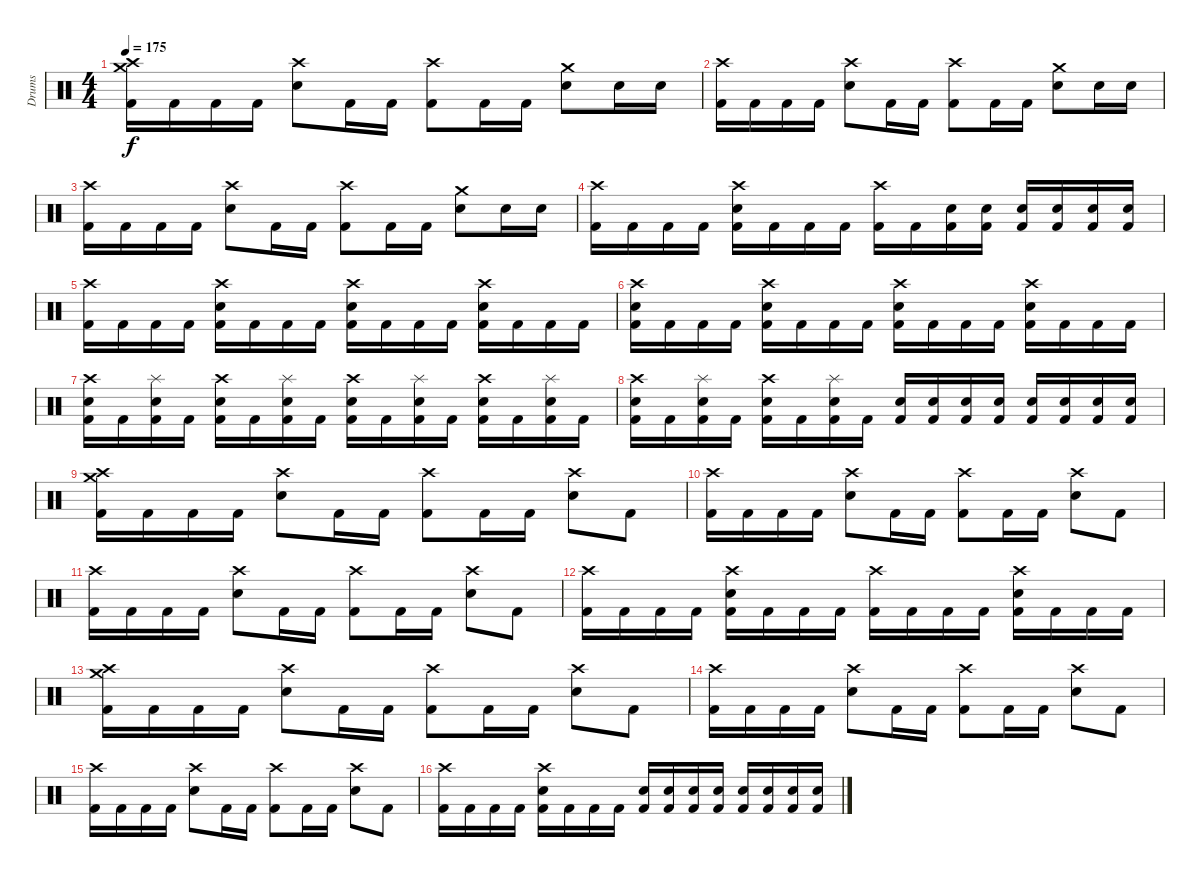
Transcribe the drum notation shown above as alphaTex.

\track ("Drums" "Drums") {instrument percussion}
\staff {score}
\articulation defaults
\ts (4 4)
\tempo 175
\clef neutral
\ks c
("Crash medium (hit)" "Crash high (hit)" "Kick (hit) 2").16{dy f} "Kick (hit) 2".16 "Kick (hit) 2".16 "Kick (hit) 2".16 ("Crash high (hit)" "Snare (hit) 2").8 "Kick (hit) 2".16 "Kick (hit) 2".16 ("Crash high (hit)" "Kick (hit) 2").8 "Kick (hit) 2".16 "Kick (hit) 2".16 ("Crash medium (hit)" "Snare (hit) 2").8 "Snare (hit) 2".16 "Snare (hit) 2".16 |
("Crash high (hit)" "Kick (hit) 2").16 "Kick (hit) 2".16 "Kick (hit) 2".16 "Kick (hit) 2".16 ("Crash high (hit)" "Snare (hit) 2").8 "Kick (hit) 2".16 "Kick (hit) 2".16 ("Crash high (hit)" "Kick (hit) 2").8 "Kick (hit) 2".16 "Kick (hit) 2".16 ("Crash medium (hit)" "Snare (hit) 2").8 "Snare (hit) 2".16 "Snare (hit) 2".16 |
("Crash high (hit)" "Kick (hit) 2").16 "Kick (hit) 2".16 "Kick (hit) 2".16 "Kick (hit) 2".16 ("Crash high (hit)" "Snare (hit) 2").8 "Kick (hit) 2".16 "Kick (hit) 2".16 ("Crash high (hit)" "Kick (hit) 2").8 "Kick (hit) 2".16 "Kick (hit) 2".16 ("Crash medium (hit)" "Snare (hit) 2").8 "Snare (hit) 2".16 "Snare (hit) 2".16 |
("Crash high (hit)" "Kick (hit) 2").16 "Kick (hit) 2".16 "Kick (hit) 2".16 "Kick (hit) 2".16 ("Crash high (hit)" "Snare (hit) 2" "Kick (hit) 2").16 "Kick (hit) 2".16 "Kick (hit) 2".16 "Kick (hit) 2".16 ("Crash high (hit)" "Kick (hit) 2").16 "Kick (hit) 2".16 ("Snare (hit) 2" "Kick (hit) 2").16 ("Snare (hit) 2" "Kick (hit) 2").16 ("Snare (hit) 2" "Kick (hit) 2").16 ("Snare (hit) 2" "Kick (hit) 2").16 ("Snare (hit) 2" "Kick (hit) 2").16 ("Snare (hit) 2" "Kick (hit) 2").16 |
("Crash high (hit)" "Kick (hit) 2").16 "Kick (hit) 2".16 "Kick (hit) 2".16 "Kick (hit) 2".16 ("Crash high (hit)" "Snare (hit) 2" "Kick (hit) 2").16 "Kick (hit) 2".16 "Kick (hit) 2".16 "Kick (hit) 2".16 ("Crash high (hit)" "Snare (hit) 2" "Kick (hit) 2").16 "Kick (hit) 2".16 "Kick (hit) 2".16 "Kick (hit) 2".16 ("Crash high (hit)" "Snare (hit) 2" "Kick (hit) 2").16 "Kick (hit) 2".16 "Kick (hit) 2".16 "Kick (hit) 2".16 |
("Crash high (hit)" "Snare (hit) 2" "Kick (hit) 2").16 "Kick (hit) 2".16 "Kick (hit) 2".16 "Kick (hit) 2".16 ("Crash high (hit)" "Snare (hit) 2" "Kick (hit) 2").16 "Kick (hit) 2".16 "Kick (hit) 2".16 "Kick (hit) 2".16 ("Crash high (hit)" "Snare (hit) 2" "Kick (hit) 2").16 "Kick (hit) 2".16 "Kick (hit) 2".16 "Kick (hit) 2".16 ("Crash high (hit)" "Snare (hit) 2" "Kick (hit) 2").16 "Kick (hit) 2".16 "Kick (hit) 2".16 "Kick (hit) 2".16 |
("Crash high (hit)" "Snare (hit) 2" "Kick (hit) 2").16 "Kick (hit) 2".16 ("Splash (hit)" "Snare (hit) 2" "Kick (hit) 2").16 "Kick (hit) 2".16 ("Crash high (hit)" "Snare (hit) 2" "Kick (hit) 2").16 "Kick (hit) 2".16 ("Splash (hit)" "Snare (hit) 2" "Kick (hit) 2").16 "Kick (hit) 2".16 ("Crash high (hit)" "Snare (hit) 2" "Kick (hit) 2").16 "Kick (hit) 2".16 ("Splash (hit)" "Snare (hit) 2" "Kick (hit) 2").16 "Kick (hit) 2".16 ("Crash high (hit)" "Snare (hit) 2" "Kick (hit) 2").16 "Kick (hit) 2".16 ("Splash (hit)" "Snare (hit) 2" "Kick (hit) 2").16 "Kick (hit) 2".16 |
("Crash high (hit)" "Snare (hit) 2" "Kick (hit) 2").16 "Kick (hit) 2".16 ("Splash (hit)" "Snare (hit) 2" "Kick (hit) 2").16 "Kick (hit) 2".16 ("Crash high (hit)" "Snare (hit) 2" "Kick (hit) 2").16 "Kick (hit) 2".16 ("Splash (hit)" "Snare (hit) 2" "Kick (hit) 2").16 "Kick (hit) 2".16 ("Snare (hit) 2" "Kick (hit) 2").16 ("Snare (hit) 2" "Kick (hit) 2").16 ("Snare (hit) 2" "Kick (hit) 2").16 ("Snare (hit) 2" "Kick (hit) 2").16 ("Snare (hit) 2" "Kick (hit) 2").16 ("Snare (hit) 2" "Kick (hit) 2").16 ("Snare (hit) 2" "Kick (hit) 2").16 ("Snare (hit) 2" "Kick (hit) 2").16 |
("Crash medium (hit)" "Crash high (hit)" "Kick (hit) 2").16 "Kick (hit) 2".16 "Kick (hit) 2".16 "Kick (hit) 2".16 ("Crash high (hit)" "Snare (hit) 2").8 "Kick (hit) 2".16 "Kick (hit) 2".16 ("Crash high (hit)" "Kick (hit) 2").8 "Kick (hit) 2".16 "Kick (hit) 2".16 ("Crash high (hit)" "Snare (hit) 2").8 "Kick (hit) 2".8 |
("Crash high (hit)" "Kick (hit) 2").16 "Kick (hit) 2".16 "Kick (hit) 2".16 "Kick (hit) 2".16 ("Crash high (hit)" "Snare (hit) 2").8 "Kick (hit) 2".16 "Kick (hit) 2".16 ("Crash high (hit)" "Kick (hit) 2").8 "Kick (hit) 2".16 "Kick (hit) 2".16 ("Crash high (hit)" "Snare (hit) 2").8 "Kick (hit) 2".8 |
("Crash high (hit)" "Kick (hit) 2").16 "Kick (hit) 2".16 "Kick (hit) 2".16 "Kick (hit) 2".16 ("Crash high (hit)" "Snare (hit) 2").8 "Kick (hit) 2".16 "Kick (hit) 2".16 ("Crash high (hit)" "Kick (hit) 2").8 "Kick (hit) 2".16 "Kick (hit) 2".16 ("Crash high (hit)" "Snare (hit) 2").8 "Kick (hit) 2".8 |
("Crash high (hit)" "Kick (hit) 2").16 "Kick (hit) 2".16 "Kick (hit) 2".16 "Kick (hit) 2".16 ("Crash high (hit)" "Snare (hit) 2" "Kick (hit) 2").16 "Kick (hit) 2".16 "Kick (hit) 2".16 "Kick (hit) 2".16 ("Crash high (hit)" "Kick (hit) 2").16 "Kick (hit) 2".16 "Kick (hit) 2".16 "Kick (hit) 2".16 ("Crash high (hit)" "Snare (hit) 2" "Kick (hit) 2").16 "Kick (hit) 2".16 "Kick (hit) 2".16 "Kick (hit) 2".16 |
("Crash medium (hit)" "Crash high (hit)" "Kick (hit) 2").16 "Kick (hit) 2".16 "Kick (hit) 2".16 "Kick (hit) 2".16 ("Crash high (hit)" "Snare (hit) 2").8 "Kick (hit) 2".16 "Kick (hit) 2".16 ("Crash high (hit)" "Kick (hit) 2").8 "Kick (hit) 2".16 "Kick (hit) 2".16 ("Crash high (hit)" "Snare (hit) 2").8 "Kick (hit) 2".8 |
("Crash high (hit)" "Kick (hit) 2").16 "Kick (hit) 2".16 "Kick (hit) 2".16 "Kick (hit) 2".16 ("Crash high (hit)" "Snare (hit) 2").8 "Kick (hit) 2".16 "Kick (hit) 2".16 ("Crash high (hit)" "Kick (hit) 2").8 "Kick (hit) 2".16 "Kick (hit) 2".16 ("Crash high (hit)" "Snare (hit) 2").8 "Kick (hit) 2".8 |
("Crash high (hit)" "Kick (hit) 2").16 "Kick (hit) 2".16 "Kick (hit) 2".16 "Kick (hit) 2".16 ("Crash high (hit)" "Snare (hit) 2").8 "Kick (hit) 2".16 "Kick (hit) 2".16 ("Crash high (hit)" "Kick (hit) 2").8 "Kick (hit) 2".16 "Kick (hit) 2".16 ("Crash high (hit)" "Snare (hit) 2").8 "Kick (hit) 2".8 |
("Crash high (hit)" "Kick (hit) 2").16 "Kick (hit) 2".16 "Kick (hit) 2".16 "Kick (hit) 2".16 ("Crash high (hit)" "Snare (hit) 2" "Kick (hit) 2").16 "Kick (hit) 2".16 "Kick (hit) 2".16 "Kick (hit) 2".16 ("Snare (hit) 2" "Kick (hit) 2").16 ("Snare (hit) 2" "Kick (hit) 2").16 ("Snare (hit) 2" "Kick (hit) 2").16 ("Snare (hit) 2" "Kick (hit) 2").16 ("Snare (hit) 2" "Kick (hit) 2").16 ("Snare (hit) 2" "Kick (hit) 2").16 ("Snare (hit) 2" "Kick (hit) 2").16 ("Snare (hit) 2" "Kick (hit) 2").16
